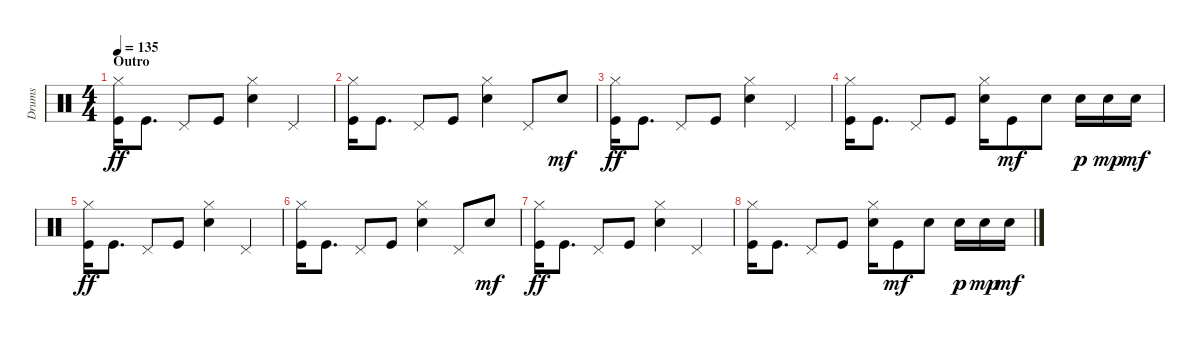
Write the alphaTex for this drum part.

\track ("Drums" "Drums") {instrument percussion}
\staff {score}
\articulation defaults
\ts (4 4)
\section ("" "Outro")
\tempo 135
\clef neutral
\ks c
("Kick (hit)" "Hi-Hat (closed)").16{dy ff} "Kick (hit)".8{d} "Pedal Hi-Hat (hit)".8 "Kick (hit)".8 ("Electric Snare (hit)" "Hi-Hat (closed)").4 "Pedal Hi-Hat (hit)".4 |
("Kick (hit)" "Hi-Hat (closed)").16 "Kick (hit)".8{d} "Pedal Hi-Hat (hit)".8 "Kick (hit)".8 ("Electric Snare (hit)" "Hi-Hat (closed)").4 "Pedal Hi-Hat (hit)".8 "Electric Snare (hit)".8{dy mf} |
("Kick (hit)" "Hi-Hat (closed)").16{dy ff} "Kick (hit)".8{d} "Pedal Hi-Hat (hit)".8 "Kick (hit)".8 ("Electric Snare (hit)" "Hi-Hat (closed)").4 "Pedal Hi-Hat (hit)".4 |
("Kick (hit)" "Hi-Hat (closed)").16 "Kick (hit)".8{d} "Pedal Hi-Hat (hit)".8 "Kick (hit)".8 ("Electric Snare (hit)" "Hi-Hat (closed)").16 "Kick (hit)".8{dy mf} "Electric Snare (hit)".8 "Electric Snare (hit)".16{dy p} "Electric Snare (hit)".16{dy mp} "Electric Snare (hit)".16{dy mf} |
("Kick (hit)" "Hi-Hat (closed)").16{dy ff} "Kick (hit)".8{d} "Pedal Hi-Hat (hit)".8 "Kick (hit)".8 ("Electric Snare (hit)" "Hi-Hat (closed)").4 "Pedal Hi-Hat (hit)".4 |
("Kick (hit)" "Hi-Hat (closed)").16 "Kick (hit)".8{d} "Pedal Hi-Hat (hit)".8 "Kick (hit)".8 ("Electric Snare (hit)" "Hi-Hat (closed)").4 "Pedal Hi-Hat (hit)".8 "Electric Snare (hit)".8{dy mf} |
("Kick (hit)" "Hi-Hat (closed)").16{dy ff} "Kick (hit)".8{d} "Pedal Hi-Hat (hit)".8 "Kick (hit)".8 ("Electric Snare (hit)" "Hi-Hat (closed)").4 "Pedal Hi-Hat (hit)".4 |
("Kick (hit)" "Hi-Hat (closed)").16 "Kick (hit)".8{d} "Pedal Hi-Hat (hit)".8 "Kick (hit)".8 ("Electric Snare (hit)" "Hi-Hat (closed)").16 "Kick (hit)".8{dy mf} "Electric Snare (hit)".8 "Electric Snare (hit)".16{dy p} "Electric Snare (hit)".16{dy mp} "Electric Snare (hit)".16{dy mf}
